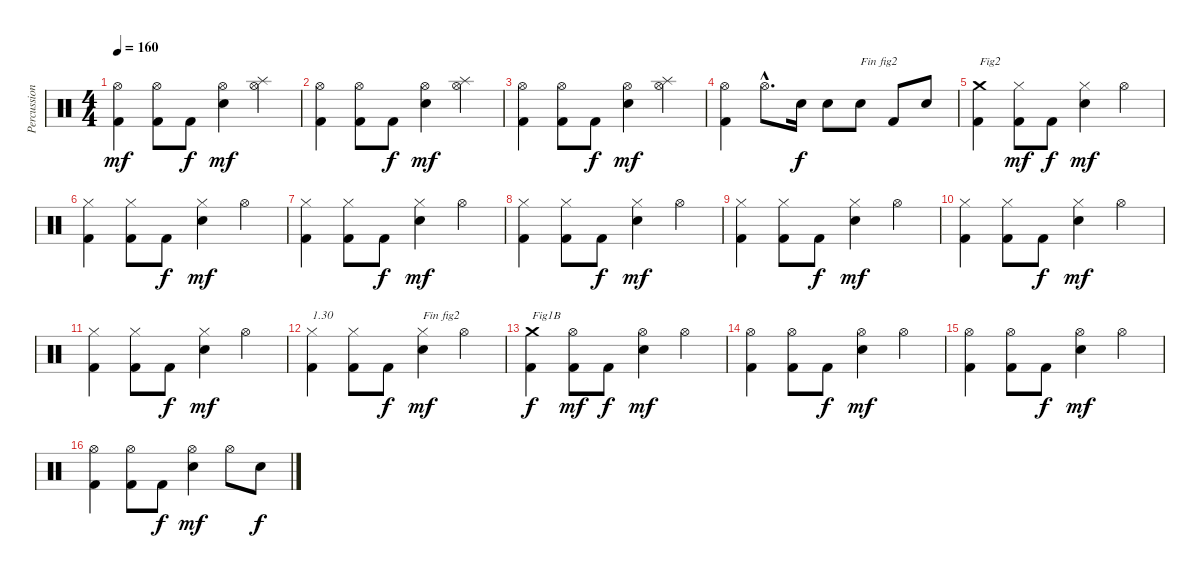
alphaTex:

\track ("Percussions" "Percussion") {instrument percussion}
\staff {score}
\articulation defaults
\ts (4 4)
\tempo 160
\clef neutral
\ks c
("Kick (hit) 2" "Hi-Hat (open)").4{dy mf} ("Kick (hit) 2" "Hi-Hat (open)").8 "Kick (hit) 2".8{dy f} ("Electric Snare (hit)" "Hi-Hat (open)").4{dy mf} ("Hi-Hat (open)" "Splash (hit)").4 |
("Kick (hit) 2" "Hi-Hat (open)").4 ("Kick (hit) 2" "Hi-Hat (open)").8 "Kick (hit) 2".8{dy f} ("Electric Snare (hit)" "Hi-Hat (open)").4{dy mf} ("Hi-Hat (open)" "Splash (hit)").4 |
("Kick (hit) 2" "Hi-Hat (open)").4 ("Kick (hit) 2" "Hi-Hat (open)").8 "Kick (hit) 2".8{dy f} ("Electric Snare (hit)" "Hi-Hat (open)").4{dy mf} ("Hi-Hat (open)" "Splash (hit)").4 |
("Kick (hit) 2" "Hi-Hat (open)").4 "Hi-Hat (open)"{hac}.8{d} "Electric Snare (hit)".16{dy f} "Electric Snare (hit)".8 "Electric Snare (hit)".8{txt "Fin fig2"} "Kick (hit) 2".8 "Electric Snare (hit)".8 |
("Kick (hit) 2" "Crash medium (hit)").4{txt "Fig2"} ("Kick (hit) 2" "Hi-Hat (closed)").8{dy mf} "Kick (hit) 2".8{dy f} ("Electric Snare (hit)" "Hi-Hat (closed)").4{dy mf} "Hi-Hat (open)".4 |
("Kick (hit) 2" "Hi-Hat (closed)").4 ("Kick (hit) 2" "Hi-Hat (closed)").8 "Kick (hit) 2".8{dy f} ("Electric Snare (hit)" "Hi-Hat (closed)").4{dy mf} "Hi-Hat (open)".4 |
("Kick (hit) 2" "Hi-Hat (closed)").4 ("Kick (hit) 2" "Hi-Hat (closed)").8 "Kick (hit) 2".8{dy f} ("Electric Snare (hit)" "Hi-Hat (closed)").4{dy mf} "Hi-Hat (open)".4 |
("Kick (hit) 2" "Hi-Hat (closed)").4 ("Kick (hit) 2" "Hi-Hat (closed)").8 "Kick (hit) 2".8{dy f} ("Electric Snare (hit)" "Hi-Hat (closed)").4{dy mf} "Hi-Hat (open)".4 |
("Kick (hit) 2" "Hi-Hat (closed)").4 ("Kick (hit) 2" "Hi-Hat (closed)").8 "Kick (hit) 2".8{dy f} ("Electric Snare (hit)" "Hi-Hat (closed)").4{dy mf} "Hi-Hat (open)".4 |
("Kick (hit) 2" "Hi-Hat (closed)").4 ("Kick (hit) 2" "Hi-Hat (closed)").8 "Kick (hit) 2".8{dy f} ("Electric Snare (hit)" "Hi-Hat (closed)").4{dy mf} "Hi-Hat (open)".4 |
("Kick (hit) 2" "Hi-Hat (closed)").4 ("Kick (hit) 2" "Hi-Hat (closed)").8 "Kick (hit) 2".8{dy f} ("Electric Snare (hit)" "Hi-Hat (closed)").4{dy mf} "Hi-Hat (open)".4 |
("Kick (hit) 2" "Hi-Hat (closed)").4{txt "1.30"} ("Kick (hit) 2" "Hi-Hat (closed)").8 "Kick (hit) 2".8{dy f} ("Electric Snare (hit)" "Hi-Hat (closed)").4{txt "Fin fig2" dy mf} "Hi-Hat (open)".4 |
("Kick (hit) 2" "Crash medium (hit)").4{txt "Fig1B" dy f} ("Kick (hit) 2" "Hi-Hat (open)").8{dy mf} "Kick (hit) 2".8{dy f} ("Electric Snare (hit)" "Hi-Hat (open)").4{dy mf} "Hi-Hat (open)".4 |
("Kick (hit) 2" "Hi-Hat (open)").4 ("Kick (hit) 2" "Hi-Hat (open)").8 "Kick (hit) 2".8{dy f} ("Electric Snare (hit)" "Hi-Hat (open)").4{dy mf} "Hi-Hat (open)".4 |
("Kick (hit) 2" "Hi-Hat (open)").4 ("Kick (hit) 2" "Hi-Hat (open)").8 "Kick (hit) 2".8{dy f} ("Electric Snare (hit)" "Hi-Hat (open)").4{dy mf} "Hi-Hat (open)".4 |
("Kick (hit) 2" "Hi-Hat (open)").4 ("Kick (hit) 2" "Hi-Hat (open)").8 "Kick (hit) 2".8{dy f} ("Electric Snare (hit)" "Hi-Hat (open)").4{dy mf} "Hi-Hat (open)".8 "Electric Snare (hit)".8{dy f}
